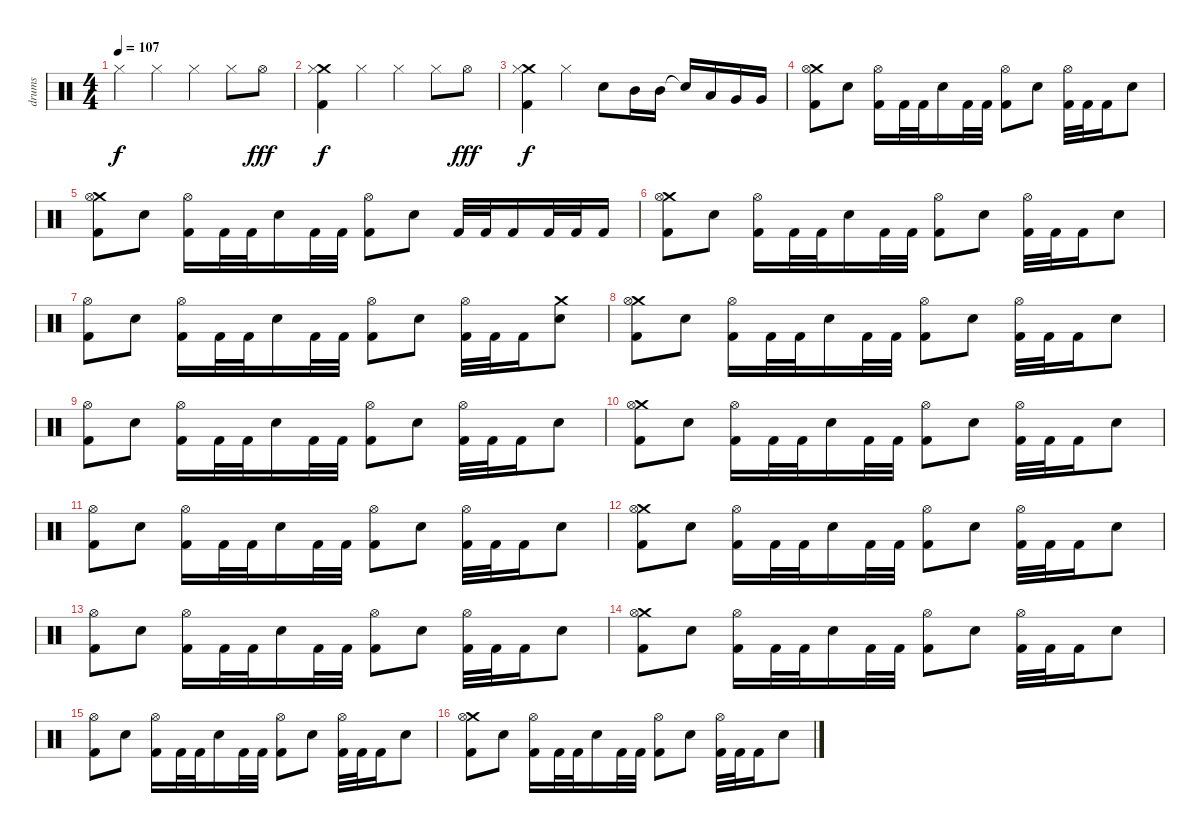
\track ("drums" "drums") {instrument percussion}
\staff {score}
\articulation defaults
\ts (4 4)
\tempo 107
\clef neutral
\ks c "Hi-Hat (closed)".4{dy f} "Hi-Hat (closed)".4 "Hi-Hat (closed)".4 "Hi-Hat (closed)".8 "Hi-Hat (open)".8{dy fff}
|
("Crash medium (hit)" "Hi-Hat (closed)" "Kick (hit) 2").4{dy f} "Hi-Hat (closed)".4 "Hi-Hat (closed)".4 "Hi-Hat (closed)".8 "Hi-Hat (open)".8{dy fff} |
("Crash medium (hit)" "Hi-Hat (closed)" "Kick (hit) 2").4{dy f} "Hi-Hat (closed)".4 "Electric Snare (hit)".8 "Mid Tom (hit)".16 "Mid Tom (hit)".16 "Snare (hit)"{t}.16 "Low Tom (hit)".16 "Very Low Tom (hit)".16 "Very Low Tom (hit)".16 |
("Crash medium (hit)" "Hi-Hat (open)" "Kick (hit) 2").8 "Electric Snare (hit)".8 ("Hi-Hat (open)" "Kick (hit) 2").16 "Kick (hit) 2".32 "Kick (hit) 2".32 "Electric Snare (hit)".16 "Kick (hit) 2".32 "Kick (hit) 2".32 ("Hi-Hat (open)" "Kick (hit) 2").8 "Electric Snare (hit)".8 ("Hi-Hat (open)" "Kick (hit) 2").32 "Kick (hit) 2".32 "Kick (hit) 2".16 "Electric Snare (hit)".8 |
("Crash medium (hit)" "Hi-Hat (open)" "Kick (hit) 2").8 "Electric Snare (hit)".8 ("Hi-Hat (open)" "Kick (hit) 2").16 "Kick (hit) 2".32 "Kick (hit) 2".32 "Electric Snare (hit)".16 "Kick (hit) 2".32 "Kick (hit) 2".32 ("Hi-Hat (open)" "Kick (hit) 2").8 "Electric Snare (hit)".8 "Kick (hit) 2".32 "Kick (hit) 2".32 "Kick (hit) 2".16 "Kick (hit) 2".32 "Kick (hit) 2".32 "Kick (hit) 2".16 |
("Crash medium (hit)" "Hi-Hat (open)" "Kick (hit) 2").8 "Electric Snare (hit)".8 ("Hi-Hat (open)" "Kick (hit) 2").16 "Kick (hit) 2".32 "Kick (hit) 2".32 "Electric Snare (hit)".16 "Kick (hit) 2".32 "Kick (hit) 2".32 ("Hi-Hat (open)" "Kick (hit) 2").8 "Electric Snare (hit)".8 ("Hi-Hat (open)" "Kick (hit) 2").32 "Kick (hit) 2".32 "Kick (hit) 2".16 "Electric Snare (hit)".8 |
("Hi-Hat (open)" "Kick (hit) 2").8 "Electric Snare (hit)".8 ("Hi-Hat (open)" "Kick (hit) 2").16 "Kick (hit) 2".32 "Kick (hit) 2".32 "Electric Snare (hit)".16 "Kick (hit) 2".32 "Kick (hit) 2".32 ("Hi-Hat (open)" "Kick (hit) 2").8 "Electric Snare (hit)".8 ("Hi-Hat (open)" "Kick (hit) 2").32 "Kick (hit) 2".32 "Kick (hit) 2".16 ("Crash medium (hit)" "Electric Snare (hit)").8 |
("Crash medium (hit)" "Hi-Hat (open)" "Kick (hit) 2").8 "Electric Snare (hit)".8 ("Hi-Hat (open)" "Kick (hit) 2").16 "Kick (hit) 2".32 "Kick (hit) 2".32 "Electric Snare (hit)".16 "Kick (hit) 2".32 "Kick (hit) 2".32 ("Hi-Hat (open)" "Kick (hit) 2").8 "Electric Snare (hit)".8 ("Hi-Hat (open)" "Kick (hit) 2").32 "Kick (hit) 2".32 "Kick (hit) 2".16 "Electric Snare (hit)".8 |
("Hi-Hat (open)" "Kick (hit) 2").8 "Electric Snare (hit)".8 ("Hi-Hat (open)" "Kick (hit) 2").16 "Kick (hit) 2".32 "Kick (hit) 2".32 "Electric Snare (hit)".16 "Kick (hit) 2".32 "Kick (hit) 2".32 ("Hi-Hat (open)" "Kick (hit) 2").8 "Electric Snare (hit)".8 ("Hi-Hat (open)" "Kick (hit) 2").32 "Kick (hit) 2".32 "Kick (hit) 2".16 "Electric Snare (hit)".8 |
("Crash medium (hit)" "Hi-Hat (open)" "Kick (hit) 2").8 "Electric Snare (hit)".8 ("Hi-Hat (open)" "Kick (hit) 2").16 "Kick (hit) 2".32 "Kick (hit) 2".32 "Electric Snare (hit)".16 "Kick (hit) 2".32 "Kick (hit) 2".32 ("Hi-Hat (open)" "Kick (hit) 2").8 "Electric Snare (hit)".8 ("Hi-Hat (open)" "Kick (hit) 2").32 "Kick (hit) 2".32 "Kick (hit) 2".16 "Electric Snare (hit)".8 |
("Hi-Hat (open)" "Kick (hit) 2").8 "Electric Snare (hit)".8 ("Hi-Hat (open)" "Kick (hit) 2").16 "Kick (hit) 2".32 "Kick (hit) 2".32 "Electric Snare (hit)".16 "Kick (hit) 2".32 "Kick (hit) 2".32 ("Hi-Hat (open)" "Kick (hit) 2").8 "Electric Snare (hit)".8 ("Hi-Hat (open)" "Kick (hit) 2").32 "Kick (hit) 2".32 "Kick (hit) 2".16 "Electric Snare (hit)".8 |
("Crash medium (hit)" "Hi-Hat (open)" "Kick (hit) 2").8 "Electric Snare (hit)".8 ("Hi-Hat (open)" "Kick (hit) 2").16 "Kick (hit) 2".32 "Kick (hit) 2".32 "Electric Snare (hit)".16 "Kick (hit) 2".32 "Kick (hit) 2".32 ("Hi-Hat (open)" "Kick (hit) 2").8 "Electric Snare (hit)".8 ("Hi-Hat (open)" "Kick (hit) 2").32 "Kick (hit) 2".32 "Kick (hit) 2".16 "Electric Snare (hit)".8 |
("Hi-Hat (open)" "Kick (hit) 2").8 "Electric Snare (hit)".8 ("Hi-Hat (open)" "Kick (hit) 2").16 "Kick (hit) 2".32 "Kick (hit) 2".32 "Electric Snare (hit)".16 "Kick (hit) 2".32 "Kick (hit) 2".32 ("Hi-Hat (open)" "Kick (hit) 2").8 "Electric Snare (hit)".8 ("Hi-Hat (open)" "Kick (hit) 2").32 "Kick (hit) 2".32 "Kick (hit) 2".16 "Electric Snare (hit)".8 |
("Crash medium (hit)" "Hi-Hat (open)" "Kick (hit) 2").8 "Electric Snare (hit)".8 ("Hi-Hat (open)" "Kick (hit) 2").16 "Kick (hit) 2".32 "Kick (hit) 2".32 "Electric Snare (hit)".16 "Kick (hit) 2".32 "Kick (hit) 2".32 ("Hi-Hat (open)" "Kick (hit) 2").8 "Electric Snare (hit)".8 ("Hi-Hat (open)" "Kick (hit) 2").32 "Kick (hit) 2".32 "Kick (hit) 2".16 "Electric Snare (hit)".8 |
("Hi-Hat (open)" "Kick (hit) 2").8 "Electric Snare (hit)".8 ("Hi-Hat (open)" "Kick (hit) 2").16 "Kick (hit) 2".32 "Kick (hit) 2".32 "Electric Snare (hit)".16 "Kick (hit) 2".32 "Kick (hit) 2".32 ("Hi-Hat (open)" "Kick (hit) 2").8 "Electric Snare (hit)".8 ("Hi-Hat (open)" "Kick (hit) 2").32 "Kick (hit) 2".32 "Kick (hit) 2".16 "Electric Snare (hit)".8 |
("Crash medium (hit)" "Hi-Hat (open)" "Kick (hit) 2").8 "Electric Snare (hit)".8 ("Hi-Hat (open)" "Kick (hit) 2").16 "Kick (hit) 2".32 "Kick (hit) 2".32 "Electric Snare (hit)".16 "Kick (hit) 2".32 "Kick (hit) 2".32 ("Hi-Hat (open)" "Kick (hit) 2").8 "Electric Snare (hit)".8 ("Hi-Hat (open)" "Kick (hit) 2").32 "Kick (hit) 2".32 "Kick (hit) 2".16 "Electric Snare (hit)".8
